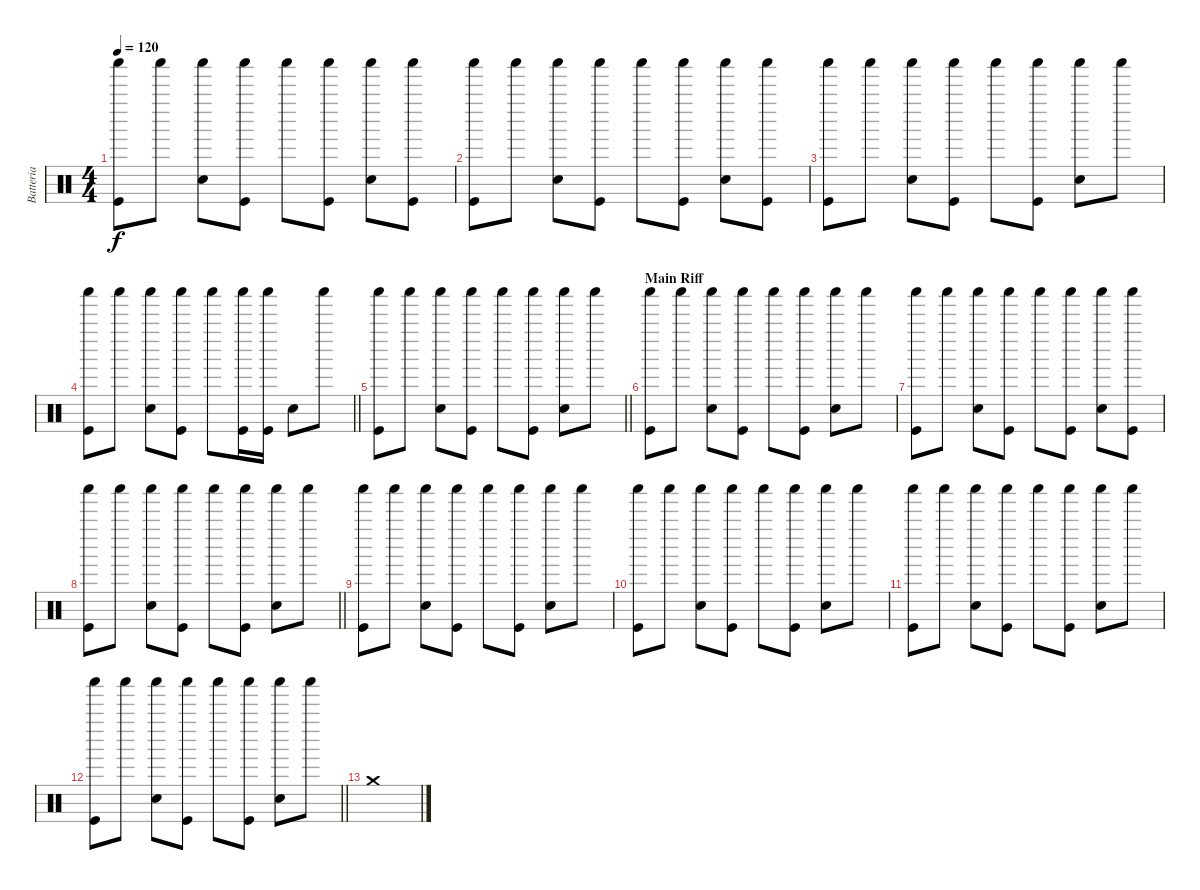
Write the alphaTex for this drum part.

\track ("Batteria" "Batteria") {instrument percussion}
\staff {score}
\articulation defaults
\ts (4 4)
\tempo 120
\clef neutral
\ks c
("Shaker (hit)" "Kick (hit)").8{dy f} "Shaker (hit)".8 ("Shaker (hit)" "Snare (hit) 2").8 ("Shaker (hit)" "Kick (hit)").8 "Shaker (hit)".8 ("Shaker (hit)" "Kick (hit)").8 ("Shaker (hit)" "Snare (hit) 2").8 ("Shaker (hit)" "Kick (hit)").8 |
("Shaker (hit)" "Kick (hit)").8 "Shaker (hit)".8 ("Shaker (hit)" "Snare (hit) 2").8 ("Shaker (hit)" "Kick (hit)").8 "Shaker (hit)".8 ("Shaker (hit)" "Kick (hit)").8 ("Shaker (hit)" "Snare (hit) 2").8 ("Shaker (hit)" "Kick (hit)").8 |
("Shaker (hit)" "Kick (hit)").8 "Shaker (hit)".8 ("Shaker (hit)" "Snare (hit) 2").8 ("Shaker (hit)" "Kick (hit)").8 "Shaker (hit)".8 ("Shaker (hit)" "Kick (hit)").8 ("Shaker (hit)" "Snare (hit) 2").8 "Shaker (hit)".8 |
\barLineRight lightlight
("Shaker (hit)" "Kick (hit)").8 "Shaker (hit)".8 ("Shaker (hit)" "Snare (hit) 2").8 ("Shaker (hit)" "Kick (hit)").8 "Shaker (hit)".8 ("Shaker (hit)" "Kick (hit)").16 ("Shaker (hit)" "Kick (hit)").16 "Snare (hit) 2".8 "Shaker (hit)".8 |
\barLineRight lightlight
("Shaker (hit)" "Kick (hit)").8 "Shaker (hit)".8 ("Shaker (hit)" "Snare (hit) 2").8 ("Shaker (hit)" "Kick (hit)").8 "Shaker (hit)".8 ("Shaker (hit)" "Kick (hit)").8 ("Shaker (hit)" "Snare (hit) 2").8 "Shaker (hit)".8 |
\section ("" "Main Riff")
("Shaker (hit)" "Kick (hit)").8 "Shaker (hit)".8 ("Shaker (hit)" "Snare (hit) 2").8 ("Shaker (hit)" "Kick (hit)").8 "Shaker (hit)".8 ("Shaker (hit)" "Kick (hit)").8 ("Shaker (hit)" "Snare (hit) 2").8 "Shaker (hit)".8 |
("Shaker (hit)" "Kick (hit)").8 "Shaker (hit)".8 ("Shaker (hit)" "Snare (hit) 2").8 ("Shaker (hit)" "Kick (hit)").8 "Shaker (hit)".8 ("Shaker (hit)" "Kick (hit)").8 ("Shaker (hit)" "Snare (hit) 2").8 ("Shaker (hit)" "Kick (hit)").8 |
\barLineRight lightlight
("Shaker (hit)" "Kick (hit)").8 "Shaker (hit)".8 ("Shaker (hit)" "Snare (hit) 2").8 ("Shaker (hit)" "Kick (hit)").8 "Shaker (hit)".8 ("Shaker (hit)" "Kick (hit)").8 ("Shaker (hit)" "Snare (hit) 2").8 "Shaker (hit)".8 |
("Shaker (hit)" "Kick (hit)").8 "Shaker (hit)".8 ("Shaker (hit)" "Snare (hit) 2").8 ("Shaker (hit)" "Kick (hit)").8 "Shaker (hit)".8 ("Shaker (hit)" "Kick (hit)").8 ("Shaker (hit)" "Snare (hit) 2").8 "Shaker (hit)".8 |
("Shaker (hit)" "Kick (hit)").8 "Shaker (hit)".8 ("Shaker (hit)" "Snare (hit) 2").8 ("Shaker (hit)" "Kick (hit)").8 "Shaker (hit)".8 ("Shaker (hit)" "Kick (hit)").8 ("Shaker (hit)" "Snare (hit) 2").8 "Shaker (hit)".8 |
("Shaker (hit)" "Kick (hit)").8 "Shaker (hit)".8 ("Shaker (hit)" "Snare (hit) 2").8 ("Shaker (hit)" "Kick (hit)").8 "Shaker (hit)".8 ("Shaker (hit)" "Kick (hit)").8 ("Shaker (hit)" "Snare (hit) 2").8 "Shaker (hit)".8 |
\barLineRight lightlight
("Shaker (hit)" "Kick (hit)").8 "Shaker (hit)".8 ("Shaker (hit)" "Snare (hit) 2").8 ("Shaker (hit)" "Kick (hit)").8 "Shaker (hit)".8 ("Shaker (hit)" "Kick (hit)").8 ("Shaker (hit)" "Snare (hit) 2").8 "Shaker (hit)".8 |
"Crash medium (hit)".1
